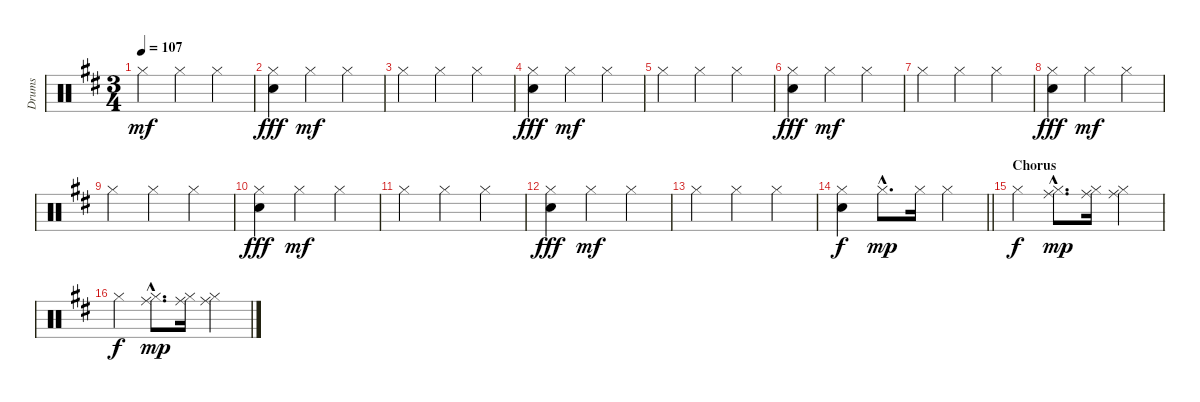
\track ("Drums" "Drums") {instrument percussion}
\staff {score}
\articulation defaults
\ts (3 4)
\tempo 107
\clef neutral
\ks d "Hi-Hat (closed)".4{dy mf} "Hi-Hat (closed)".4 "Hi-Hat (closed)".4
|
("Hi-Hat (closed)" "Electric Snare (hit)").4{dy fff} "Hi-Hat (closed)".4{dy mf} "Hi-Hat (closed)".4 |
"Hi-Hat (closed)".4 "Hi-Hat (closed)".4 "Hi-Hat (closed)".4 |
("Hi-Hat (closed)" "Electric Snare (hit)").4{dy fff} "Hi-Hat (closed)".4{dy mf} "Hi-Hat (closed)".4 |
"Hi-Hat (closed)".4 "Hi-Hat (closed)".4 "Hi-Hat (closed)".4 |
("Hi-Hat (closed)" "Electric Snare (hit)").4{dy fff} "Hi-Hat (closed)".4{dy mf} "Hi-Hat (closed)".4 |
"Hi-Hat (closed)".4 "Hi-Hat (closed)".4 "Hi-Hat (closed)".4 |
("Hi-Hat (closed)" "Electric Snare (hit)").4{dy fff} "Hi-Hat (closed)".4{dy mf} "Hi-Hat (closed)".4 |
"Hi-Hat (closed)".4 "Hi-Hat (closed)".4 "Hi-Hat (closed)".4 |
("Hi-Hat (closed)" "Electric Snare (hit)").4{dy fff} "Hi-Hat (closed)".4{dy mf} "Hi-Hat (closed)".4 |
"Hi-Hat (closed)".4 "Hi-Hat (closed)".4 "Hi-Hat (closed)".4 |
("Hi-Hat (closed)" "Electric Snare (hit)").4{dy fff} "Hi-Hat (closed)".4{dy mf} "Hi-Hat (closed)".4 |
"Hi-Hat (closed)".4 "Hi-Hat (closed)".4 "Hi-Hat (closed)".4 |
\barLineRight lightlight
("Hi-Hat (closed)" "Electric Snare (hit)").4{dy f} "Hi-Hat (closed)"{hac}.8{d dy mp} "Hi-Hat (closed)".16 "Hi-Hat (closed)".4 |
\section ("" "Chorus")
"Hi-Hat (closed)".4{dy f} ("Hi-Hat (closed)"{hac} "Ride (middle)"{hac}).8{d dy mp} ("Hi-Hat (closed)" "Ride (middle)").16 ("Hi-Hat (closed)" "Ride (middle)").4 |
"Hi-Hat (closed)".4{dy f} ("Hi-Hat (closed)"{hac} "Ride (middle)"{hac}).8{d dy mp} ("Hi-Hat (closed)" "Ride (middle)").16 ("Hi-Hat (closed)" "Ride (middle)").4
